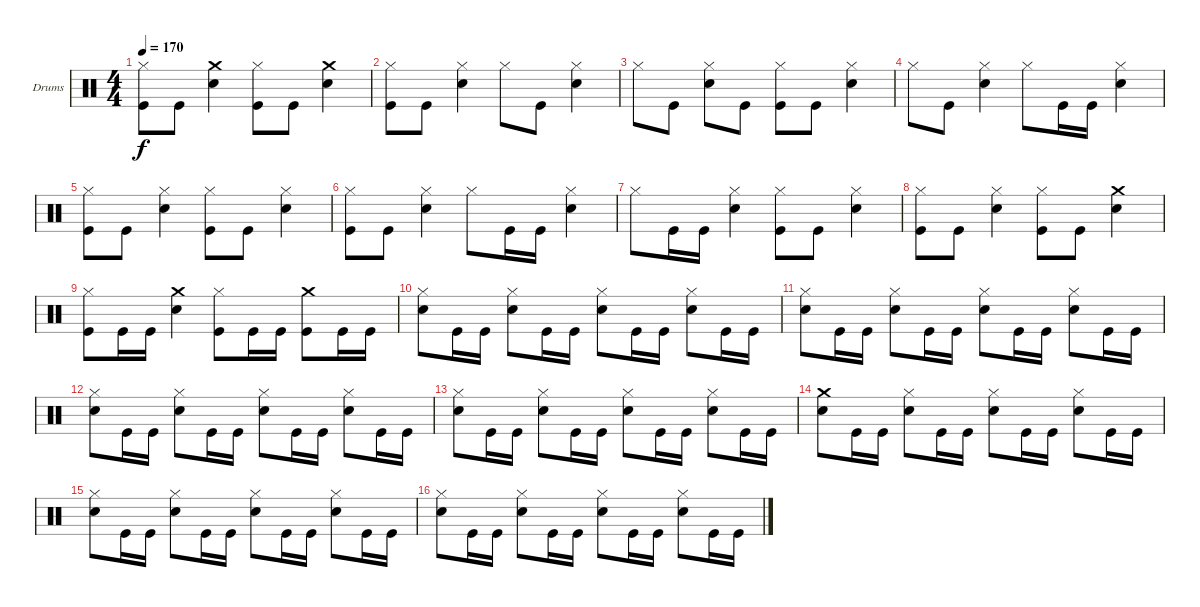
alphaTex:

\bracketExtendMode groupsimilarinstruments
\firstSystemTrackNameOrientation horizontal
\otherSystemsTrackNameOrientation horizontal
\track ("Drumkit" "Drums") {instrument percussion}
\staff {score}
\articulation defaults
\ts (4 4)
\tempo 170
\clef neutral
\ks c
("Hi-Hat (closed)" "Kick (hit)").8{dy f} "Kick (hit)".8 ("Crash medium (hit)" "Snare (hit) 2").4 ("Hi-Hat (closed)" "Kick (hit)").8 "Kick (hit)".8 ("Crash medium (hit)" "Snare (hit) 2").4 |
("Hi-Hat (closed)" "Kick (hit)").8 "Kick (hit)".8 ("Hi-Hat (closed)" "Snare (hit) 2").4 "Hi-Hat (closed)".8 "Kick (hit)".8 ("Hi-Hat (closed)" "Snare (hit) 2").4 |
"Hi-Hat (closed)".8 "Kick (hit)".8 ("Hi-Hat (closed)" "Snare (hit) 2").8 "Kick (hit)".8 ("Hi-Hat (closed)" "Kick (hit)").8 "Kick (hit)".8 ("Hi-Hat (closed)" "Snare (hit) 2").4 |
"Hi-Hat (closed)".8 "Kick (hit)".8 ("Hi-Hat (closed)" "Snare (hit) 2").4 "Hi-Hat (closed)".8 "Kick (hit)".16 "Kick (hit)".16 ("Hi-Hat (closed)" "Snare (hit) 2").4 |
("Hi-Hat (closed)" "Kick (hit)").8 "Kick (hit)".8 ("Hi-Hat (closed)" "Snare (hit) 2").4 ("Hi-Hat (closed)" "Kick (hit)").8 "Kick (hit)".8 ("Hi-Hat (closed)" "Snare (hit) 2").4 |
("Hi-Hat (closed)" "Kick (hit)").8 "Kick (hit)".8 ("Hi-Hat (closed)" "Snare (hit) 2").4 "Hi-Hat (closed)".8 "Kick (hit)".16 "Kick (hit)".16 ("Hi-Hat (closed)" "Snare (hit) 2").4 |
"Hi-Hat (closed)".8 "Kick (hit)".16 "Kick (hit)".16 ("Hi-Hat (closed)" "Snare (hit) 2").4 ("Hi-Hat (closed)" "Kick (hit)").8 "Kick (hit)".8 ("Hi-Hat (closed)" "Snare (hit) 2").4 |
("Hi-Hat (closed)" "Kick (hit)").8 "Kick (hit)".8 ("Hi-Hat (closed)" "Snare (hit) 2").4 ("Hi-Hat (closed)" "Kick (hit)").8 "Kick (hit)".8 ("Crash medium (hit)" "Snare (hit) 2").4 |
("Hi-Hat (closed)" "Kick (hit)").8 "Kick (hit)".16 "Kick (hit)".16 ("Crash medium (hit)" "Snare (hit) 2").4 ("Hi-Hat (closed)" "Kick (hit)").8 "Kick (hit)".16 "Kick (hit)".16 ("Crash medium (hit)" "Kick (hit)").8 "Kick (hit)".16 "Kick (hit)".16 |
("Hi-Hat (closed)" "Snare (hit) 2").8 "Kick (hit)".16 "Kick (hit)".16 ("Hi-Hat (closed)" "Snare (hit) 2").8 "Kick (hit)".16 "Kick (hit)".16 ("Hi-Hat (closed)" "Snare (hit) 2").8 "Kick (hit)".16 "Kick (hit)".16 ("Hi-Hat (closed)" "Snare (hit) 2").8 "Kick (hit)".16 "Kick (hit)".16 |
("Hi-Hat (closed)" "Snare (hit) 2").8 "Kick (hit)".16 "Kick (hit)".16 ("Hi-Hat (closed)" "Snare (hit) 2").8 "Kick (hit)".16 "Kick (hit)".16 ("Hi-Hat (closed)" "Snare (hit) 2").8 "Kick (hit)".16 "Kick (hit)".16 ("Hi-Hat (closed)" "Snare (hit) 2").8 "Kick (hit)".16 "Kick (hit)".16 |
("Hi-Hat (closed)" "Snare (hit) 2").8 "Kick (hit)".16 "Kick (hit)".16 ("Hi-Hat (closed)" "Snare (hit) 2").8 "Kick (hit)".16 "Kick (hit)".16 ("Hi-Hat (closed)" "Snare (hit) 2").8 "Kick (hit)".16 "Kick (hit)".16 ("Hi-Hat (closed)" "Snare (hit) 2").8 "Kick (hit)".16 "Kick (hit)".16 |
("Hi-Hat (closed)" "Snare (hit) 2").8 "Kick (hit)".16 "Kick (hit)".16 ("Hi-Hat (closed)" "Snare (hit) 2").8 "Kick (hit)".16 "Kick (hit)".16 ("Hi-Hat (closed)" "Snare (hit) 2").8 "Kick (hit)".16 "Kick (hit)".16 ("Hi-Hat (closed)" "Snare (hit) 2").8 "Kick (hit)".16 "Kick (hit)".16 |
("Crash medium (hit)" "Snare (hit) 2").8 "Kick (hit)".16 "Kick (hit)".16 ("Hi-Hat (closed)" "Snare (hit) 2").8 "Kick (hit)".16 "Kick (hit)".16 ("Hi-Hat (closed)" "Snare (hit) 2").8 "Kick (hit)".16 "Kick (hit)".16 ("Hi-Hat (closed)" "Snare (hit) 2").8 "Kick (hit)".16 "Kick (hit)".16 |
("Hi-Hat (closed)" "Snare (hit) 2").8 "Kick (hit)".16 "Kick (hit)".16 ("Hi-Hat (closed)" "Snare (hit) 2").8 "Kick (hit)".16 "Kick (hit)".16 ("Hi-Hat (closed)" "Snare (hit) 2").8 "Kick (hit)".16 "Kick (hit)".16 ("Hi-Hat (closed)" "Snare (hit) 2").8 "Kick (hit)".16 "Kick (hit)".16 |
("Hi-Hat (closed)" "Snare (hit) 2").8 "Kick (hit)".16 "Kick (hit)".16 ("Hi-Hat (closed)" "Snare (hit) 2").8 "Kick (hit)".16 "Kick (hit)".16 ("Hi-Hat (closed)" "Snare (hit) 2").8 "Kick (hit)".16 "Kick (hit)".16 ("Hi-Hat (closed)" "Snare (hit) 2").8 "Kick (hit)".16 "Kick (hit)".16
